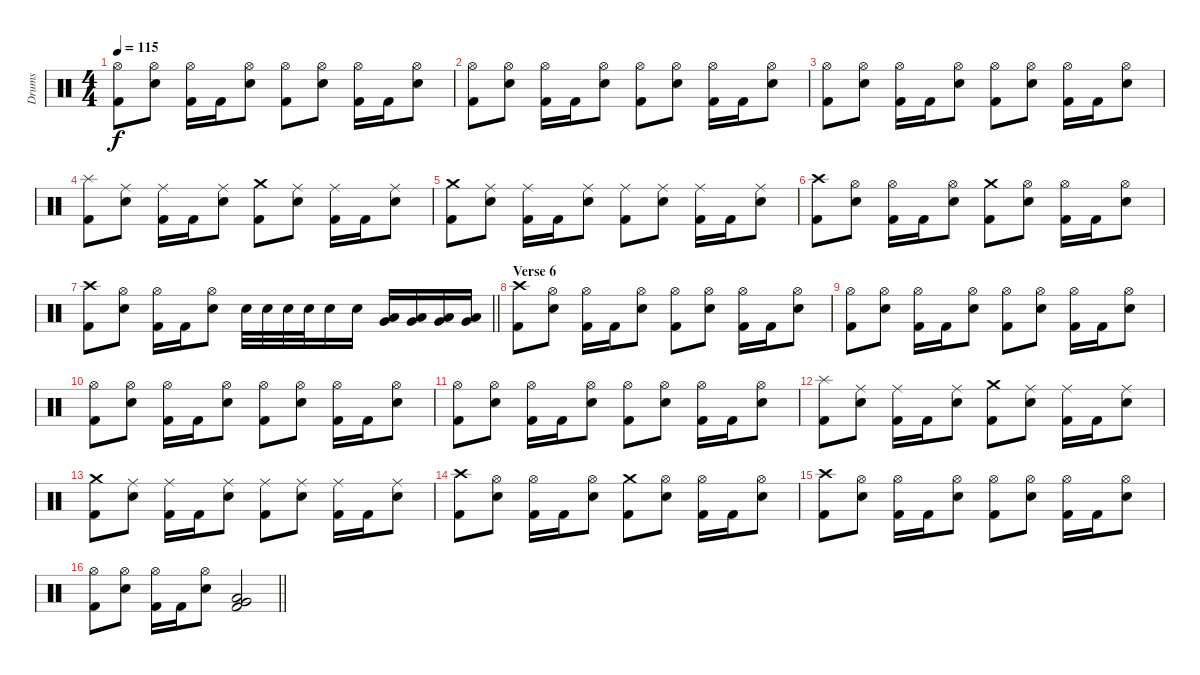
\track ("Drums" "Drums") {instrument percussion}
\staff {score}
\articulation defaults
\ts (4 4)
\tempo 115
\clef neutral
\ks c
("Hi-Hat (open)" "Kick (hit) 2").8{dy f} ("Hi-Hat (open)" "Electric Snare (hit)").8 ("Hi-Hat (open)" "Kick (hit) 2").16 "Kick (hit) 2".16 ("Hi-Hat (open)" "Electric Snare (hit)").8 ("Hi-Hat (open)" "Kick (hit) 2").8 ("Hi-Hat (open)" "Electric Snare (hit)").8 ("Hi-Hat (open)" "Kick (hit) 2").16 "Kick (hit) 2".16 ("Hi-Hat (open)" "Electric Snare (hit)").8 |
("Hi-Hat (open)" "Kick (hit) 2").8 ("Hi-Hat (open)" "Electric Snare (hit)").8 ("Hi-Hat (open)" "Kick (hit) 2").16 "Kick (hit) 2".16 ("Hi-Hat (open)" "Electric Snare (hit)").8 ("Hi-Hat (open)" "Kick (hit) 2").8 ("Hi-Hat (open)" "Electric Snare (hit)").8 ("Hi-Hat (open)" "Kick (hit) 2").16 "Kick (hit) 2".16 ("Hi-Hat (open)" "Electric Snare (hit)").8 |
("Hi-Hat (open)" "Kick (hit) 2").8 ("Hi-Hat (open)" "Electric Snare (hit)").8 ("Hi-Hat (open)" "Kick (hit) 2").16 "Kick (hit) 2".16 ("Hi-Hat (open)" "Electric Snare (hit)").8 ("Hi-Hat (open)" "Kick (hit) 2").8 ("Hi-Hat (open)" "Electric Snare (hit)").8 ("Hi-Hat (open)" "Kick (hit) 2").16 "Kick (hit) 2".16 ("Hi-Hat (open)" "Electric Snare (hit)").8 |
("Splash (hit)" "Kick (hit) 2").8 ("Ride (middle)" "Electric Snare (hit)").8 ("Ride (middle)" "Kick (hit) 2").16 "Kick (hit) 2".16 ("Ride (middle)" "Electric Snare (hit)").8 ("Crash medium (hit)" "Kick (hit) 2").8 ("Ride (middle)" "Electric Snare (hit)").8 ("Ride (middle)" "Kick (hit) 2").16 "Kick (hit) 2".16 ("Ride (middle)" "Electric Snare (hit)").8 |
("Crash medium (hit)" "Kick (hit) 2").8 ("Ride (middle)" "Electric Snare (hit)").8 ("Ride (middle)" "Kick (hit) 2").16 "Kick (hit) 2".16 ("Ride (middle)" "Electric Snare (hit)").8 ("Ride (middle)" "Kick (hit) 2").8 ("Ride (middle)" "Electric Snare (hit)").8 ("Ride (middle)" "Kick (hit) 2").16 "Kick (hit) 2".16 ("Ride (middle)" "Electric Snare (hit)").8 |
("Crash high (hit)" "Kick (hit) 2").8 ("Hi-Hat (open)" "Electric Snare (hit)").8 ("Hi-Hat (open)" "Kick (hit) 2").16 "Kick (hit) 2".16 ("Hi-Hat (open)" "Electric Snare (hit)").8 ("Crash medium (hit)" "Kick (hit) 2").8 ("Hi-Hat (open)" "Electric Snare (hit)").8 ("Hi-Hat (open)" "Kick (hit) 2").16 "Kick (hit) 2".16 ("Hi-Hat (open)" "Electric Snare (hit)").8 |
\barLineRight lightlight
("Crash high (hit)" "Kick (hit) 2").8 ("Hi-Hat (open)" "Electric Snare (hit)").8 ("Hi-Hat (open)" "Kick (hit) 2").16 "Kick (hit) 2".16 ("Hi-Hat (open)" "Electric Snare (hit)").8 "Electric Snare (hit)".32 "Electric Snare (hit)".32 "Electric Snare (hit)".32 "Electric Snare (hit)".32 "Electric Snare (hit)".16 "Electric Snare (hit)".16 ("Low Tom (hit)" "Very Low Tom (hit)").16 ("Low Tom (hit)" "Very Low Tom (hit)").16 ("Low Tom (hit)" "Very Low Tom (hit)").16 ("Low Tom (hit)" "Very Low Tom (hit)").16 |
\section ("" "Verse 6")
("Crash high (hit)" "Kick (hit) 2").8 ("Hi-Hat (open)" "Electric Snare (hit)").8 ("Hi-Hat (open)" "Kick (hit) 2").16 "Kick (hit) 2".16 ("Hi-Hat (open)" "Electric Snare (hit)").8 ("Hi-Hat (open)" "Kick (hit) 2").8 ("Hi-Hat (open)" "Electric Snare (hit)").8 ("Hi-Hat (open)" "Kick (hit) 2").16 "Kick (hit) 2".16 ("Hi-Hat (open)" "Electric Snare (hit)").8 |
("Hi-Hat (open)" "Kick (hit) 2").8 ("Hi-Hat (open)" "Electric Snare (hit)").8 ("Hi-Hat (open)" "Kick (hit) 2").16 "Kick (hit) 2".16 ("Hi-Hat (open)" "Electric Snare (hit)").8 ("Hi-Hat (open)" "Kick (hit) 2").8 ("Hi-Hat (open)" "Electric Snare (hit)").8 ("Hi-Hat (open)" "Kick (hit) 2").16 "Kick (hit) 2".16 ("Hi-Hat (open)" "Electric Snare (hit)").8 |
("Hi-Hat (open)" "Kick (hit) 2").8 ("Hi-Hat (open)" "Electric Snare (hit)").8 ("Hi-Hat (open)" "Kick (hit) 2").16 "Kick (hit) 2".16 ("Hi-Hat (open)" "Electric Snare (hit)").8 ("Hi-Hat (open)" "Kick (hit) 2").8 ("Hi-Hat (open)" "Electric Snare (hit)").8 ("Hi-Hat (open)" "Kick (hit) 2").16 "Kick (hit) 2".16 ("Hi-Hat (open)" "Electric Snare (hit)").8 |
("Hi-Hat (open)" "Kick (hit) 2").8 ("Hi-Hat (open)" "Electric Snare (hit)").8 ("Hi-Hat (open)" "Kick (hit) 2").16 "Kick (hit) 2".16 ("Hi-Hat (open)" "Electric Snare (hit)").8 ("Hi-Hat (open)" "Kick (hit) 2").8 ("Hi-Hat (open)" "Electric Snare (hit)").8 ("Hi-Hat (open)" "Kick (hit) 2").16 "Kick (hit) 2".16 ("Hi-Hat (open)" "Electric Snare (hit)").8 |
("Splash (hit)" "Kick (hit) 2").8 ("Ride (middle)" "Electric Snare (hit)").8 ("Ride (middle)" "Kick (hit) 2").16 "Kick (hit) 2".16 ("Ride (middle)" "Electric Snare (hit)").8 ("Crash medium (hit)" "Kick (hit) 2").8 ("Ride (middle)" "Electric Snare (hit)").8 ("Ride (middle)" "Kick (hit) 2").16 "Kick (hit) 2".16 ("Ride (middle)" "Electric Snare (hit)").8 |
("Crash medium (hit)" "Kick (hit) 2").8 ("Ride (middle)" "Electric Snare (hit)").8 ("Ride (middle)" "Kick (hit) 2").16 "Kick (hit) 2".16 ("Ride (middle)" "Electric Snare (hit)").8 ("Ride (middle)" "Kick (hit) 2").8 ("Ride (middle)" "Electric Snare (hit)").8 ("Ride (middle)" "Kick (hit) 2").16 "Kick (hit) 2".16 ("Ride (middle)" "Electric Snare (hit)").8 |
("Crash high (hit)" "Kick (hit) 2").8 ("Hi-Hat (open)" "Electric Snare (hit)").8 ("Hi-Hat (open)" "Kick (hit) 2").16 "Kick (hit) 2".16 ("Hi-Hat (open)" "Electric Snare (hit)").8 ("Crash medium (hit)" "Kick (hit) 2").8 ("Hi-Hat (open)" "Electric Snare (hit)").8 ("Hi-Hat (open)" "Kick (hit) 2").16 "Kick (hit) 2".16 ("Hi-Hat (open)" "Electric Snare (hit)").8 |
("Crash high (hit)" "Kick (hit) 2").8 ("Hi-Hat (open)" "Electric Snare (hit)").8 ("Hi-Hat (open)" "Kick (hit) 2").16 "Kick (hit) 2".16 ("Hi-Hat (open)" "Electric Snare (hit)").8 ("Hi-Hat (open)" "Kick (hit) 2").8 ("Hi-Hat (open)" "Electric Snare (hit)").8 ("Hi-Hat (open)" "Kick (hit) 2").16 "Kick (hit) 2".16 ("Hi-Hat (open)" "Electric Snare (hit)").8 |
\barLineRight lightlight
("Hi-Hat (open)" "Kick (hit) 2").8 ("Hi-Hat (open)" "Electric Snare (hit)").8 ("Hi-Hat (open)" "Kick (hit) 2").16 "Kick (hit) 2".16 ("Hi-Hat (open)" "Electric Snare (hit)").8 ("Very Low Tom (hit)" "Low Floor Tom (hit)" "Kick (hit) 2").2
